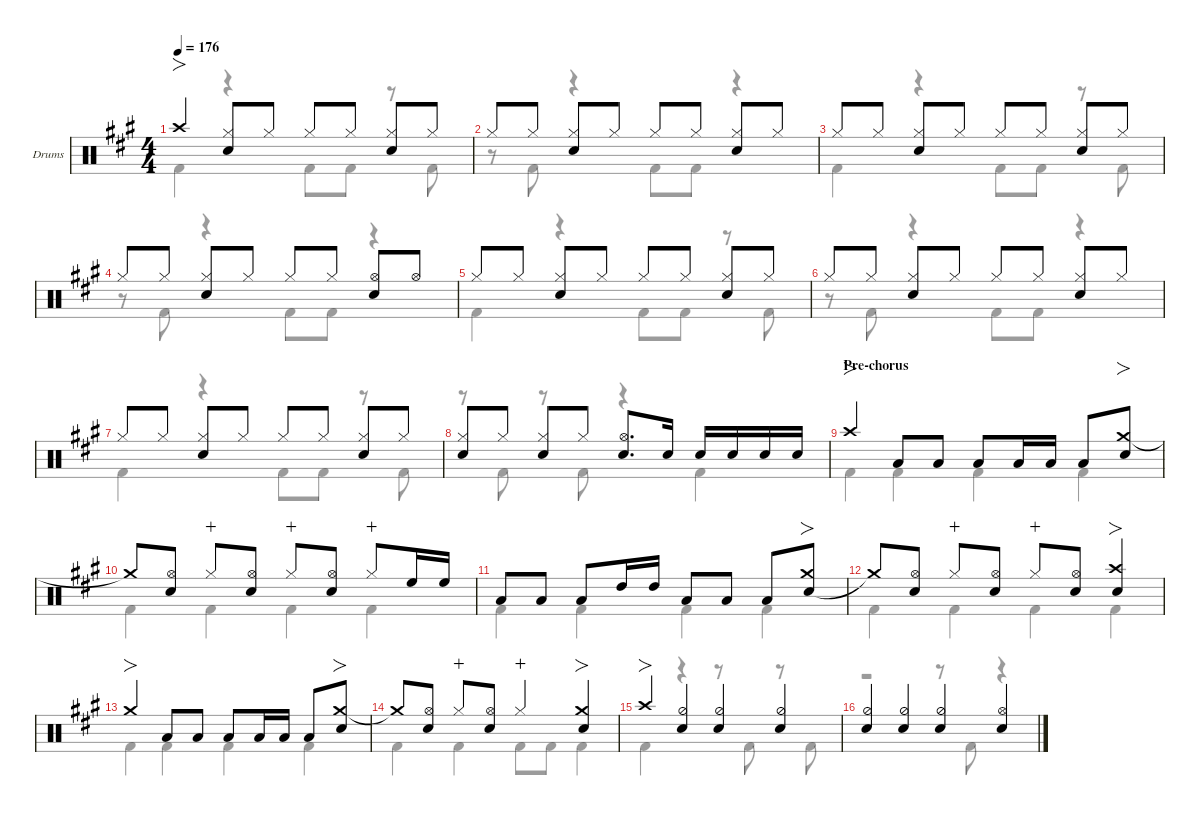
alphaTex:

\defaultSystemsLayout 4
\hideDynamics
\bracketExtendMode nobrackets
\firstSystemTrackNameOrientation horizontal
\track ("Drums" "Drums") {defaultSystemsLayout 4 instrument percussion}
\staff {score}
\articulation defaults
\voice
\ts (4 4)
\tempo 176
\clef neutral
\ks a "Crash high (hit)"{acc forcenatural}.4{fo dy f beam Up}
("Hi-Hat (closed)"{acc forcenatural} "Snare (hit) 2"{acc forcenatural}).8{beam Up} "Hi-Hat (closed)"{acc forcenatural}.8{dy mf beam Up} "Hi-Hat (closed)"{acc forcenatural}.8{dy f beam Up} "Hi-Hat (closed)"{acc forcenatural}.8{dy mf beam Up} ("Hi-Hat (closed)"{acc forcenatural} "Snare (hit) 2"{acc forcenatural}).8{dy f beam Up} "Hi-Hat (closed)"{acc forcenatural}.8{dy mf beam Up} |
"Hi-Hat (closed)"{acc forcenatural}.8{dy f beam Up} "Hi-Hat (closed)"{acc forcenatural}.8{dy mf beam Up} ("Hi-Hat (closed)"{acc forcenatural} "Snare (hit) 2"{acc forcenatural}).8{dy f beam Up} "Hi-Hat (closed)"{acc forcenatural}.8{dy mf beam Up} "Hi-Hat (closed)"{acc forcenatural}.8{dy f beam Up} "Hi-Hat (closed)"{acc forcenatural}.8{dy mf beam Up} ("Hi-Hat (closed)"{acc forcenatural} "Snare (hit) 2"{acc forcenatural}).8{dy f beam Up} "Hi-Hat (closed)"{acc forcenatural}.8{dy mf beam Up} |
"Hi-Hat (closed)"{acc forcenatural}.8{dy f beam Up} "Hi-Hat (closed)"{acc forcenatural}.8{dy mf beam Up} ("Hi-Hat (closed)"{acc forcenatural} "Snare (hit) 2"{acc forcenatural}).8{dy f beam Up} "Hi-Hat (closed)"{acc forcenatural}.8{dy mf beam Up} "Hi-Hat (closed)"{acc forcenatural}.8{dy f beam Up} "Hi-Hat (closed)"{acc forcenatural}.8{dy mf beam Up} ("Hi-Hat (closed)"{acc forcenatural} "Snare (hit) 2"{acc forcenatural}).8{dy f beam Up} "Hi-Hat (closed)"{acc forcenatural}.8{dy mf beam Up} |
"Hi-Hat (closed)"{acc forcenatural}.8{dy f beam Up} "Hi-Hat (closed)"{acc forcenatural}.8{dy mf beam Up} ("Hi-Hat (closed)"{acc forcenatural} "Snare (hit) 2"{acc forcenatural}).8{dy f beam Up} "Hi-Hat (closed)"{acc forcenatural}.8{dy mf beam Up} "Hi-Hat (closed)"{acc forcenatural}.8{dy f beam Up} "Hi-Hat (closed)"{acc forcenatural}.8{dy mf beam Up} ("Hi-Hat (open)"{acc forcenatural} "Snare (hit) 2"{acc forcenatural}).8{dy f beam Up} "Hi-Hat (open)"{acc forcenatural}.8{dy mf beam Up} |
"Hi-Hat (closed)"{acc forcenatural}.8{dy f beam Up} "Hi-Hat (closed)"{acc forcenatural}.8{dy mf beam Up} ("Hi-Hat (closed)"{acc forcenatural} "Snare (hit) 2"{acc forcenatural}).8{dy f beam Up} "Hi-Hat (closed)"{acc forcenatural}.8{dy mf beam Up} "Hi-Hat (closed)"{acc forcenatural}.8{dy f beam Up} "Hi-Hat (closed)"{acc forcenatural}.8{dy mf beam Up} ("Hi-Hat (closed)"{acc forcenatural} "Snare (hit) 2"{acc forcenatural}).8{dy f beam Up} "Hi-Hat (closed)"{acc forcenatural}.8{dy mf beam Up} |
"Hi-Hat (closed)"{acc forcenatural}.8{dy f beam Up} "Hi-Hat (closed)"{acc forcenatural}.8{dy mf beam Up} ("Hi-Hat (closed)"{acc forcenatural} "Snare (hit) 2"{acc forcenatural}).8{dy f beam Up} "Hi-Hat (closed)"{acc forcenatural}.8{dy mf beam Up} "Hi-Hat (closed)"{acc forcenatural}.8{dy f beam Up} "Hi-Hat (closed)"{acc forcenatural}.8{dy mf beam Up} ("Hi-Hat (closed)"{acc forcenatural} "Snare (hit) 2"{acc forcenatural}).8{dy f beam Up} "Hi-Hat (closed)"{acc forcenatural}.8{dy mf beam Up} |
"Hi-Hat (closed)"{acc forcenatural}.8{dy f beam Up} "Hi-Hat (closed)"{acc forcenatural}.8{dy mf beam Up} ("Hi-Hat (closed)"{acc forcenatural} "Snare (hit) 2"{acc forcenatural}).8{dy f beam Up} "Hi-Hat (closed)"{acc forcenatural}.8{dy mf beam Up} "Hi-Hat (closed)"{acc forcenatural}.8{dy f beam Up} "Hi-Hat (closed)"{acc forcenatural}.8{dy mf beam Up} ("Hi-Hat (closed)"{acc forcenatural} "Snare (hit) 2"{acc forcenatural}).8{dy f beam Up} "Hi-Hat (closed)"{acc forcenatural}.8{dy mf beam Up} |
("Hi-Hat (closed)"{acc forcenatural} "Snare (hit) 2"{acc forcenatural}).8{dy f beam Up} "Hi-Hat (closed)"{acc forcenatural}.8{dy mf beam Up} ("Hi-Hat (closed)"{acc forcenatural} "Snare (hit) 2"{acc forcenatural}).8{dy f beam Up} "Hi-Hat (closed)"{acc forcenatural}.8{dy mf beam Up} ("Hi-Hat (open)"{acc forcenatural} "Snare (hit) 2"{acc forcenatural}).8{d dy f beam Up} "Snare (hit) 2"{acc forcenatural}.16{dy mf beam Up beam split} "Snare (hit) 2"{acc forcenatural}.16{dy f beam Up} "Snare (hit) 2"{acc forcenatural}.16{dy mf beam Up} "Snare (hit) 2"{acc forcenatural}.16{dy f beam Up} "Snare (hit) 2"{acc forcenatural}.16{dy mf beam Up} |
\section ("" "Pre-chorus")
"Crash high (hit)"{acc forcenatural}.4{fo dy f beam Up} "Low Tom (hit)"{acc forcenatural}.8{beam Up} "Low Tom (hit)"{acc forcenatural}.8{beam Up} "Low Tom (hit)"{acc forcenatural}.8{beam Up} "Low Tom (hit)"{acc forcenatural}.16{beam Up} "Low Tom (hit)"{acc forcenatural}.16{beam Up beam split} "Low Tom (hit)"{acc forcenatural}.8{beam Up} ("Crash medium (hit)"{acc forcenatural} "Snare (hit) 2"{acc forcenatural}).8{fo beam Up} |
"Crash medium (hit)"{t acc forcenatural}.8{beam Up} ("Snare (hit) 2"{acc forcenatural} "Hi-Hat (open)"{acc forcenatural}).8{beam Up} "Hi-Hat (closed)"{acc forcenatural}.8{dy mp wahc beam Up} ("Hi-Hat (open)"{acc forcenatural} "Snare (hit) 2"{acc forcenatural}).8{dy f beam Up} "Hi-Hat (closed)"{acc forcenatural}.8{dy mp wahc beam Up} ("Hi-Hat (open)"{acc forcenatural} "Snare (hit) 2"{acc forcenatural}).8{dy f beam Up beam split} "Hi-Hat (closed)"{acc forcenatural}.8{dy mp wahc beam Up} "High Floor Tom (hit)"{acc forcenatural}.16{dy f beam Up} "High Floor Tom (hit)"{acc forcenatural}.16{beam Up} |
"Low Tom (hit)"{acc forcenatural}.8{beam Up} "Low Tom (hit)"{acc forcenatural}.8{beam Up beam split} "Low Tom (hit)"{acc forcenatural}.8{beam Up} "High Tom (hit)"{acc forcenatural}.16{beam Up} "High Tom (hit)"{acc forcenatural}.16{beam Up} "Low Tom (hit)"{acc forcenatural}.8{beam Up} "Low Tom (hit)"{acc forcenatural}.8{beam Up} "Low Tom (hit)"{acc forcenatural}.8{beam Up} ("Snare (hit) 2"{acc forcenatural} "Crash medium (hit)"{acc forcenatural}).8{fo beam Up} |
"Crash medium (hit)"{t acc forcenatural}.8{beam Up} ("Snare (hit) 2"{acc forcenatural} "Hi-Hat (open)"{acc forcenatural}).8{beam Up} "Hi-Hat (closed)"{acc forcenatural}.8{dy mp wahc beam Up} ("Hi-Hat (open)"{acc forcenatural} "Snare (hit) 2"{acc forcenatural}).8{dy f beam Up} "Hi-Hat (closed)"{acc forcenatural}.8{dy mp wahc beam Up} ("Hi-Hat (open)"{acc forcenatural} "Snare (hit) 2"{acc forcenatural}).8{dy f beam Up beam split} ("Snare (hit) 2"{acc forcenatural} "Crash high (hit)"{acc forcenatural}).4{fo beam Up} |
"Crash medium (hit)"{acc forcenatural}.4{fo beam Up} "Low Tom (hit)"{acc forcenatural}.8{beam Up} "Low Tom (hit)"{acc forcenatural}.8{beam Up} "Low Tom (hit)"{acc forcenatural}.8{beam Up} "Low Tom (hit)"{acc forcenatural}.16{beam Up} "Low Tom (hit)"{acc forcenatural}.16{beam Up beam split} "Low Tom (hit)"{acc forcenatural}.8{beam Up} ("Crash medium (hit)"{acc forcenatural} "Snare (hit) 2"{acc forcenatural}).8{fo beam Up} |
"Crash medium (hit)"{t acc forcenatural}.8{beam Up} ("Snare (hit) 2"{acc forcenatural} "Hi-Hat (open)"{acc forcenatural}).8{beam Up} "Hi-Hat (closed)"{acc forcenatural}.8{dy mp wahc beam Up} ("Hi-Hat (open)"{acc forcenatural} "Snare (hit) 2"{acc forcenatural}).8{dy f beam Up} "Hi-Hat (closed)"{acc forcenatural}.4{dy mp wahc beam Up} ("Snare (hit) 2"{acc forcenatural} "Crash medium (hit)"{acc forcenatural}).4{fo dy f beam Up} |
"Crash high (hit)"{acc forcenatural}.4{fo beam Up} ("Snare (hit) 2"{acc forcenatural} "Hi-Hat (half)"{acc forcenatural}).4{beam Up} ("Hi-Hat (half)"{acc forcenatural} "Snare (hit) 2"{acc forcenatural}).4{beam Up} ("Hi-Hat (half)"{acc forcenatural} "Snare (hit) 2"{acc forcenatural}).4{beam Up} |
("Hi-Hat (half)"{acc forcenatural} "Snare (hit) 2"{acc forcenatural}).4{beam Up} ("Hi-Hat (half)"{acc forcenatural} "Snare (hit) 2"{acc forcenatural}).4{beam Up} ("Hi-Hat (half)"{acc forcenatural} "Snare (hit) 2"{acc forcenatural}).4{beam Up} ("Hi-Hat (open)"{acc forcenatural} "Snare (hit) 2"{acc forcenatural}).4{beam Up}
\voice
\clef neutral
\ottava regular
\simile none
\ks a "Kick (hit) 2"{acc forcenatural}.4{dy f beam Down}
r.4{beam Down} "Kick (hit) 2"{acc forcenatural}.8{beam Down} "Kick (hit) 2"{acc forcenatural}.8{beam Down} r.8{beam Down} "Kick (hit) 2"{acc forcenatural}.8{beam Down} |
r.8{beam Down} "Kick (hit) 2"{acc forcenatural}.8{beam Down} r.4{beam Down} "Kick (hit) 2"{acc forcenatural}.8{beam Down} "Kick (hit) 2"{acc forcenatural}.8{beam Down} r.4{beam Down} |
"Kick (hit) 2"{acc forcenatural}.4{beam Down} r.4{beam Down} "Kick (hit) 2"{acc forcenatural}.8{beam Down} "Kick (hit) 2"{acc forcenatural}.8{beam Down} r.8{beam Down} "Kick (hit) 2"{acc forcenatural}.8{beam Down} |
r.8{beam Down} "Kick (hit) 2"{acc forcenatural}.8{beam Down} r.4{beam Down} "Kick (hit) 2"{acc forcenatural}.8{beam Down} "Kick (hit) 2"{acc forcenatural}.8{beam Down} r.4{beam Down} |
"Kick (hit) 2"{acc forcenatural}.4{beam Down} r.4{beam Down} "Kick (hit) 2"{acc forcenatural}.8{beam Down} "Kick (hit) 2"{acc forcenatural}.8{beam Down} r.8{beam Down} "Kick (hit) 2"{acc forcenatural}.8{beam Down} |
r.8{beam Down} "Kick (hit) 2"{acc forcenatural}.8{beam Down} r.4{beam Down} "Kick (hit) 2"{acc forcenatural}.8{beam Down} "Kick (hit) 2"{acc forcenatural}.8{beam Down} r.4{beam Down} |
"Kick (hit) 2"{acc forcenatural}.4{beam Down} r.4{beam Down} "Kick (hit) 2"{acc forcenatural}.8{beam Down} "Kick (hit) 2"{acc forcenatural}.8{beam Down} r.8{beam Down} "Kick (hit) 2"{acc forcenatural}.8{beam Down} |
r.8{beam Down} "Kick (hit) 2"{acc forcenatural}.8{beam Down} r.8{beam Down} "Kick (hit) 2"{acc forcenatural}.8{beam Down} r.4{beam Down} "Kick (hit) 2"{acc forcenatural}.4{beam Down} |
"Kick (hit) 2"{acc forcenatural}.4{beam Down} "Kick (hit) 2"{acc forcenatural}.4{beam Down} "Kick (hit) 2"{acc forcenatural}.4{beam Down} "Kick (hit) 2"{acc forcenatural}.4{beam Down} |
"Kick (hit) 2"{acc forcenatural}.4{beam Down} "Kick (hit) 2"{acc forcenatural}.4{beam Down} "Kick (hit) 2"{acc forcenatural}.4{beam Down} "Kick (hit) 2"{acc forcenatural}.4{beam Down} |
"Kick (hit) 2"{acc forcenatural}.4{beam Down} "Kick (hit) 2"{acc forcenatural}.4{beam Down} "Kick (hit) 2"{acc forcenatural}.4{beam Down} "Kick (hit) 2"{acc forcenatural}.4{beam Down} |
"Kick (hit) 2"{acc forcenatural}.4{beam Down} "Kick (hit) 2"{acc forcenatural}.4{beam Down} "Kick (hit) 2"{acc forcenatural}.4{beam Down} "Kick (hit) 2"{acc forcenatural}.4{beam Down} |
"Kick (hit) 2"{acc forcenatural}.4{beam Down} "Kick (hit) 2"{acc forcenatural}.4{beam Down} "Kick (hit) 2"{acc forcenatural}.4{beam Down} "Kick (hit) 2"{acc forcenatural}.4{beam Down} |
"Kick (hit) 2"{acc forcenatural}.4{beam Down} "Kick (hit) 2"{acc forcenatural}.4{beam Down} "Kick (hit) 2"{acc forcenatural}.8{beam Down} "Kick (hit) 2"{acc forcenatural}.8{beam Down} "Kick (hit) 2"{acc forcenatural}.4{beam Down} |
"Kick (hit) 2"{acc forcenatural}.4{beam Down} r.4{beam Down} r.8{beam Down} "Kick (hit) 2"{acc forcenatural}.8{beam Down} r.8{beam Down} "Kick (hit) 2"{acc forcenatural}.8{beam Down} |
r.2{beam Down} r.8{beam Down} "Kick (hit) 2"{acc forcenatural}.8{beam Down} r.4{beam Down}
